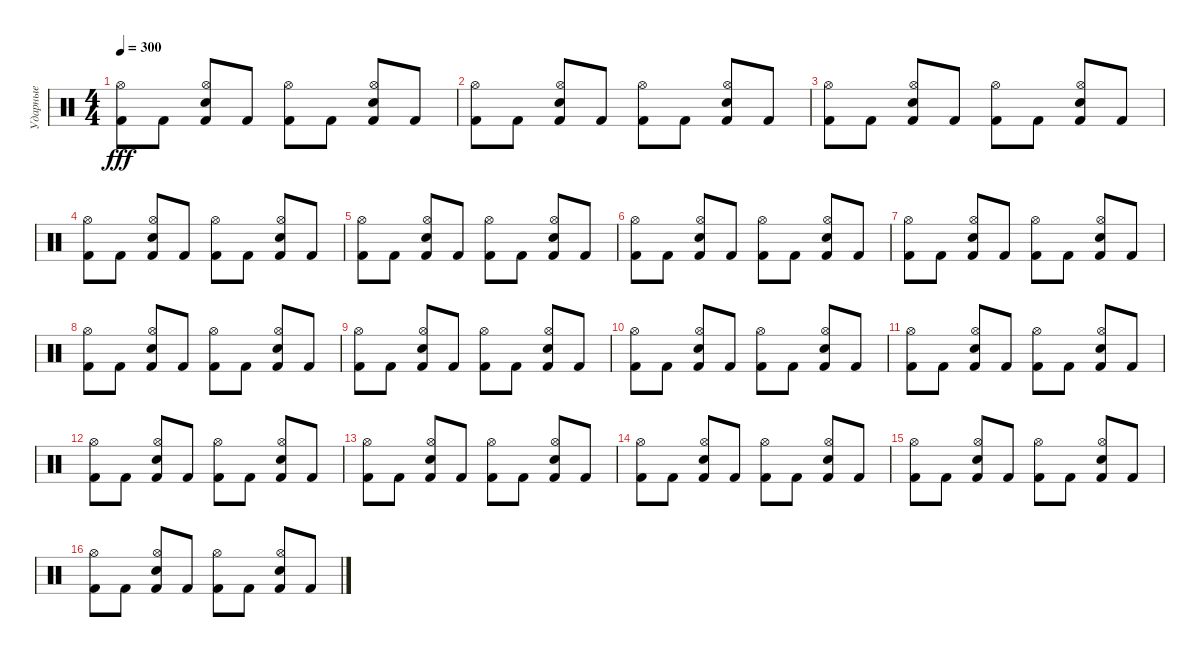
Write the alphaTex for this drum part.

\track ("Ударные" "Ударные") {instrument percussion}
\staff {score}
\articulation defaults
\ts (4 4)
\tempo 300
\clef neutral
\ks c
("Kick (hit) 2" "Hi-Hat (open)").8{dy fff} "Kick (hit) 2".8 ("Kick (hit) 2" "Snare (hit) 2" "Hi-Hat (open)").8 "Kick (hit) 2".8 ("Kick (hit) 2" "Hi-Hat (open)").8 "Kick (hit) 2".8 ("Kick (hit) 2" "Snare (hit) 2" "Hi-Hat (open)").8 "Kick (hit) 2".8 |
("Kick (hit) 2" "Hi-Hat (open)").8 "Kick (hit) 2".8 ("Kick (hit) 2" "Snare (hit) 2" "Hi-Hat (open)").8 "Kick (hit) 2".8 ("Kick (hit) 2" "Hi-Hat (open)").8 "Kick (hit) 2".8 ("Kick (hit) 2" "Snare (hit) 2" "Hi-Hat (open)").8 "Kick (hit) 2".8 |
("Kick (hit) 2" "Hi-Hat (open)").8 "Kick (hit) 2".8 ("Kick (hit) 2" "Snare (hit) 2" "Hi-Hat (open)").8 "Kick (hit) 2".8 ("Kick (hit) 2" "Hi-Hat (open)").8 "Kick (hit) 2".8 ("Kick (hit) 2" "Snare (hit) 2" "Hi-Hat (open)").8 "Kick (hit) 2".8 |
("Kick (hit) 2" "Hi-Hat (open)").8 "Kick (hit) 2".8 ("Kick (hit) 2" "Snare (hit) 2" "Hi-Hat (open)").8 "Kick (hit) 2".8 ("Kick (hit) 2" "Hi-Hat (open)").8 "Kick (hit) 2".8 ("Kick (hit) 2" "Snare (hit) 2" "Hi-Hat (open)").8 "Kick (hit) 2".8 |
("Kick (hit) 2" "Hi-Hat (open)").8 "Kick (hit) 2".8 ("Kick (hit) 2" "Snare (hit) 2" "Hi-Hat (open)").8 "Kick (hit) 2".8 ("Kick (hit) 2" "Hi-Hat (open)").8 "Kick (hit) 2".8 ("Kick (hit) 2" "Snare (hit) 2" "Hi-Hat (open)").8 "Kick (hit) 2".8 |
("Kick (hit) 2" "Hi-Hat (open)").8 "Kick (hit) 2".8 ("Kick (hit) 2" "Snare (hit) 2" "Hi-Hat (open)").8 "Kick (hit) 2".8 ("Kick (hit) 2" "Hi-Hat (open)").8 "Kick (hit) 2".8 ("Kick (hit) 2" "Snare (hit) 2" "Hi-Hat (open)").8 "Kick (hit) 2".8 |
("Kick (hit) 2" "Hi-Hat (open)").8 "Kick (hit) 2".8 ("Kick (hit) 2" "Snare (hit) 2" "Hi-Hat (open)").8 "Kick (hit) 2".8 ("Kick (hit) 2" "Hi-Hat (open)").8 "Kick (hit) 2".8 ("Kick (hit) 2" "Snare (hit) 2" "Hi-Hat (open)").8 "Kick (hit) 2".8 |
("Kick (hit) 2" "Hi-Hat (open)").8 "Kick (hit) 2".8 ("Kick (hit) 2" "Snare (hit) 2" "Hi-Hat (open)").8 "Kick (hit) 2".8 ("Kick (hit) 2" "Hi-Hat (open)").8 "Kick (hit) 2".8 ("Kick (hit) 2" "Snare (hit) 2" "Hi-Hat (open)").8 "Kick (hit) 2".8 |
("Kick (hit) 2" "Hi-Hat (open)").8 "Kick (hit) 2".8 ("Kick (hit) 2" "Snare (hit) 2" "Hi-Hat (open)").8 "Kick (hit) 2".8 ("Kick (hit) 2" "Hi-Hat (open)").8 "Kick (hit) 2".8 ("Kick (hit) 2" "Snare (hit) 2" "Hi-Hat (open)").8 "Kick (hit) 2".8 |
("Kick (hit) 2" "Hi-Hat (open)").8 "Kick (hit) 2".8 ("Kick (hit) 2" "Snare (hit) 2" "Hi-Hat (open)").8 "Kick (hit) 2".8 ("Kick (hit) 2" "Hi-Hat (open)").8 "Kick (hit) 2".8 ("Kick (hit) 2" "Snare (hit) 2" "Hi-Hat (open)").8 "Kick (hit) 2".8 |
("Kick (hit) 2" "Hi-Hat (open)").8 "Kick (hit) 2".8 ("Kick (hit) 2" "Snare (hit) 2" "Hi-Hat (open)").8 "Kick (hit) 2".8 ("Kick (hit) 2" "Hi-Hat (open)").8 "Kick (hit) 2".8 ("Kick (hit) 2" "Snare (hit) 2" "Hi-Hat (open)").8 "Kick (hit) 2".8 |
("Kick (hit) 2" "Hi-Hat (open)").8 "Kick (hit) 2".8 ("Kick (hit) 2" "Snare (hit) 2" "Hi-Hat (open)").8 "Kick (hit) 2".8 ("Kick (hit) 2" "Hi-Hat (open)").8 "Kick (hit) 2".8 ("Kick (hit) 2" "Snare (hit) 2" "Hi-Hat (open)").8 "Kick (hit) 2".8 |
("Kick (hit) 2" "Hi-Hat (open)").8 "Kick (hit) 2".8 ("Kick (hit) 2" "Snare (hit) 2" "Hi-Hat (open)").8 "Kick (hit) 2".8 ("Kick (hit) 2" "Hi-Hat (open)").8 "Kick (hit) 2".8 ("Kick (hit) 2" "Snare (hit) 2" "Hi-Hat (open)").8 "Kick (hit) 2".8 |
("Kick (hit) 2" "Hi-Hat (open)").8 "Kick (hit) 2".8 ("Kick (hit) 2" "Snare (hit) 2" "Hi-Hat (open)").8 "Kick (hit) 2".8 ("Kick (hit) 2" "Hi-Hat (open)").8 "Kick (hit) 2".8 ("Kick (hit) 2" "Snare (hit) 2" "Hi-Hat (open)").8 "Kick (hit) 2".8 |
("Kick (hit) 2" "Hi-Hat (open)").8 "Kick (hit) 2".8 ("Kick (hit) 2" "Snare (hit) 2" "Hi-Hat (open)").8 "Kick (hit) 2".8 ("Kick (hit) 2" "Hi-Hat (open)").8 "Kick (hit) 2".8 ("Kick (hit) 2" "Snare (hit) 2" "Hi-Hat (open)").8 "Kick (hit) 2".8 |
("Kick (hit) 2" "Hi-Hat (open)").8 "Kick (hit) 2".8 ("Kick (hit) 2" "Snare (hit) 2" "Hi-Hat (open)").8 "Kick (hit) 2".8 ("Kick (hit) 2" "Hi-Hat (open)").8 "Kick (hit) 2".8 ("Kick (hit) 2" "Snare (hit) 2" "Hi-Hat (open)").8 "Kick (hit) 2".8
